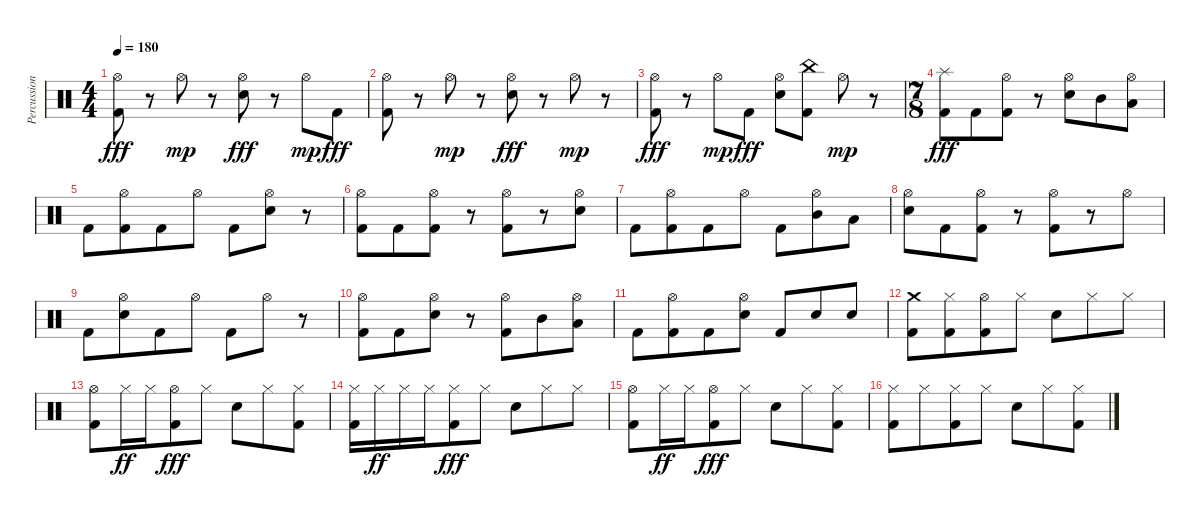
\track ("Percussion" "Percussion") {instrument percussion}
\staff {score}
\articulation defaults
\ts (4 4)
\tempo 180
\clef neutral
\ks c
("Hi-Hat (open)" "Kick (hit) 2").8{dy fff} r.8 "Hi-Hat (open)".8{dy mp} r.8 ("Hi-Hat (open)" "Snare (hit) 2").8{dy fff} r.8 "Hi-Hat (open)".8{dy mp} "Kick (hit) 2".8{dy fff} |
("Hi-Hat (open)" "Kick (hit) 2").8 r.8 "Hi-Hat (open)".8{dy mp} r.8 ("Hi-Hat (open)" "Snare (hit) 2").8{dy fff} r.8 "Hi-Hat (open)".8{dy mp} r.8 |
("Hi-Hat (open)" "Kick (hit) 2").8{dy fff} r.8 "Hi-Hat (open)".8{dy mp} "Kick (hit) 2".8{dy fff} ("Hi-Hat (open)" "Snare (hit) 2").8 ("Kick (hit) 2" "China (hit)").8 "Hi-Hat (open)".8{dy mp} r.8 |
\ts (7 8)
("Kick (hit) 2" "Splash (hit)").8{dy fff} "Kick (hit) 2".8 ("Kick (hit) 2" "Hi-Hat (open)").8 r.8 ("Snare (hit) 2" "Hi-Hat (open)").8 "Mid Tom (hit)".8 ("Low Tom (hit)" "Hi-Hat (open)").8 |
"Kick (hit) 2".8 ("Kick (hit) 2" "Hi-Hat (open)").8 "Kick (hit) 2".8 "Hi-Hat (open)".8 "Kick (hit) 2".8 ("Snare (hit) 2" "Hi-Hat (open)").8 r.8 |
("Kick (hit) 2" "Hi-Hat (open)").8 "Kick (hit) 2".8 ("Kick (hit) 2" "Hi-Hat (open)").8 r.8 ("Kick (hit) 2" "Hi-Hat (open)").8 r.8 ("Snare (hit) 2" "Hi-Hat (open)").8 |
"Kick (hit) 2".8 ("Kick (hit) 2" "Hi-Hat (open)").8 "Kick (hit) 2".8 "Hi-Hat (open)".8 "Kick (hit) 2".8 ("Hi-Hat (open)" "Mid Tom (hit)").8 "Low Tom (hit)".8 |
("Snare (hit) 2" "Hi-Hat (open)").8 "Kick (hit) 2".8 ("Kick (hit) 2" "Hi-Hat (open)").8 r.8 ("Kick (hit) 2" "Hi-Hat (open)").8 r.8 "Hi-Hat (open)".8 |
"Kick (hit) 2".8 ("Snare (hit) 2" "Hi-Hat (open)").8 "Kick (hit) 2".8 "Hi-Hat (open)".8 "Kick (hit) 2".8 "Hi-Hat (open)".8 r.8 |
("Kick (hit) 2" "Hi-Hat (open)").8 "Kick (hit) 2".8 ("Snare (hit) 2" "Hi-Hat (open)").8 r.8 ("Kick (hit) 2" "Hi-Hat (open)").8 "Mid Tom (hit)".8 ("Low Tom (hit)" "Hi-Hat (open)").8 |
"Kick (hit) 2".8 ("Kick (hit) 2" "Hi-Hat (open)").8 "Kick (hit) 2".8 ("Snare (hit) 2" "Hi-Hat (open)").8 "Kick (hit) 2".8 "Snare (hit) 2".8 "Snare (hit) 2".8 |
("Kick (hit) 2" "Crash medium (hit)").8 ("Kick (hit) 2" "Hi-Hat (closed)").8 ("Hi-Hat (open)" "Kick (hit) 2").8 "Hi-Hat (closed)".8 "Snare (hit) 2".8 "Hi-Hat (closed)".8 "Hi-Hat (closed)".8 |
("Hi-Hat (open)" "Kick (hit) 2").8 "Hi-Hat (closed)".16{dy ff} "Hi-Hat (closed)".16 ("Hi-Hat (open)" "Kick (hit) 2").8{dy fff} "Hi-Hat (closed)".8 "Snare (hit) 2".8 "Hi-Hat (closed)".8 ("Kick (hit) 2" "Hi-Hat (closed)").8 |
("Hi-Hat (closed)" "Kick (hit) 2").16 "Hi-Hat (closed)".16{dy ff} "Hi-Hat (closed)".16 "Hi-Hat (closed)".16 ("Kick (hit) 2" "Hi-Hat (closed)").8{dy fff} "Hi-Hat (closed)".8 "Snare (hit) 2".8 "Hi-Hat (closed)".8 "Hi-Hat (closed)".8 |
("Hi-Hat (open)" "Kick (hit) 2").8 "Hi-Hat (closed)".16{dy ff} "Hi-Hat (closed)".16 ("Hi-Hat (open)" "Kick (hit) 2").8{dy fff} "Hi-Hat (closed)".8 "Snare (hit) 2".8 "Hi-Hat (closed)".8 ("Kick (hit) 2" "Hi-Hat (closed)").8 |
("Kick (hit) 2" "Hi-Hat (closed)").8 "Hi-Hat (closed)".8 ("Kick (hit) 2" "Hi-Hat (closed)").8 "Hi-Hat (closed)".8 "Snare (hit) 2".8 "Hi-Hat (closed)".8 ("Kick (hit) 2" "Hi-Hat (closed)").8
